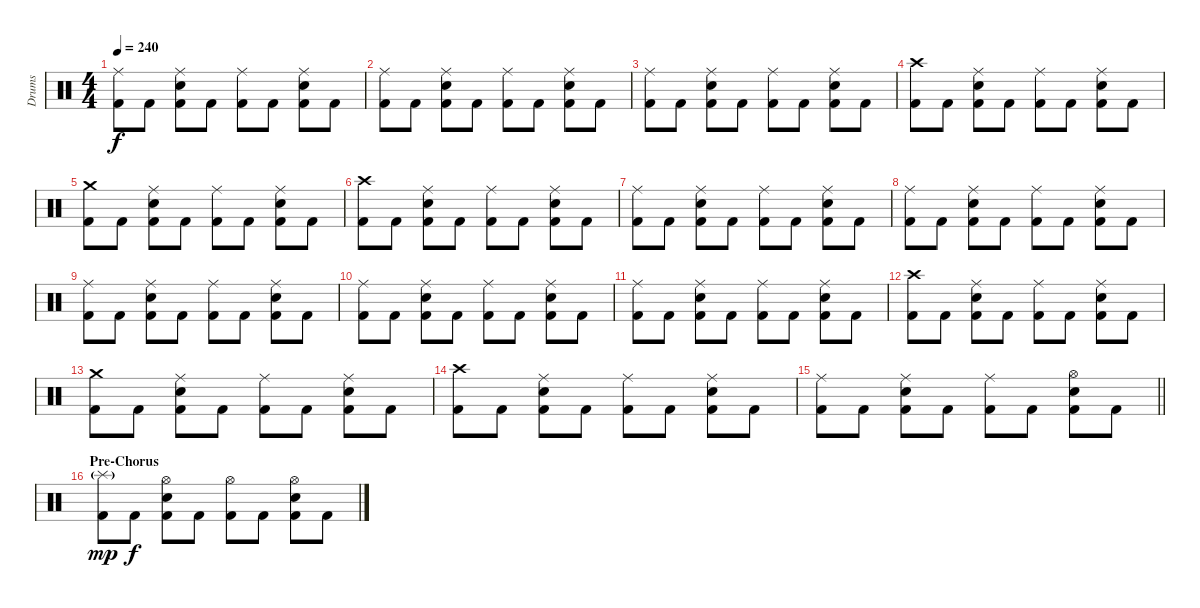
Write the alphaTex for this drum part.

\track ("Drums" "Drums") {instrument percussion}
\staff {score}
\articulation defaults
\ts (4 4)
\tempo 240
\clef neutral
\ks c
("Ride (middle)" "Kick (hit) 2").8{dy f} "Kick (hit) 2".8 ("Ride (middle)" "Snare (hit) 2" "Kick (hit) 2").8 "Kick (hit) 2".8 ("Ride (middle)" "Kick (hit) 2").8 "Kick (hit) 2".8 ("Ride (middle)" "Snare (hit) 2" "Kick (hit) 2").8 "Kick (hit) 2".8 |
("Ride (middle)" "Kick (hit) 2").8 "Kick (hit) 2".8 ("Ride (middle)" "Snare (hit) 2" "Kick (hit) 2").8 "Kick (hit) 2".8 ("Ride (middle)" "Kick (hit) 2").8 "Kick (hit) 2".8 ("Ride (middle)" "Snare (hit) 2" "Kick (hit) 2").8 "Kick (hit) 2".8 |
("Ride (middle)" "Kick (hit) 2").8 "Kick (hit) 2".8 ("Ride (middle)" "Snare (hit) 2" "Kick (hit) 2").8 "Kick (hit) 2".8 ("Ride (middle)" "Kick (hit) 2").8 "Kick (hit) 2".8 ("Ride (middle)" "Snare (hit) 2" "Kick (hit) 2").8 "Kick (hit) 2".8 |
("Crash high (hit)" "Kick (hit) 2").8 "Kick (hit) 2".8 ("Ride (middle)" "Snare (hit) 2" "Kick (hit) 2").8 "Kick (hit) 2".8 ("Ride (middle)" "Kick (hit) 2").8 "Kick (hit) 2".8 ("Ride (middle)" "Snare (hit) 2" "Kick (hit) 2").8 "Kick (hit) 2".8 |
("Crash medium (hit)" "Kick (hit) 2").8 "Kick (hit) 2".8 ("Ride (middle)" "Snare (hit) 2" "Kick (hit) 2").8 "Kick (hit) 2".8 ("Ride (middle)" "Kick (hit) 2").8 "Kick (hit) 2".8 ("Ride (middle)" "Snare (hit) 2" "Kick (hit) 2").8 "Kick (hit) 2".8 |
("Crash high (hit)" "Kick (hit) 2").8 "Kick (hit) 2".8 ("Ride (middle)" "Snare (hit) 2" "Kick (hit) 2").8 "Kick (hit) 2".8 ("Ride (middle)" "Kick (hit) 2").8 "Kick (hit) 2".8 ("Ride (middle)" "Snare (hit) 2" "Kick (hit) 2").8 "Kick (hit) 2".8 |
("Ride (middle)" "Kick (hit) 2").8 "Kick (hit) 2".8 ("Ride (middle)" "Snare (hit) 2" "Kick (hit) 2").8 "Kick (hit) 2".8 ("Ride (middle)" "Kick (hit) 2").8 "Kick (hit) 2".8 ("Ride (middle)" "Snare (hit) 2" "Kick (hit) 2").8 "Kick (hit) 2".8 |
("Ride (middle)" "Kick (hit) 2").8 "Kick (hit) 2".8 ("Ride (middle)" "Snare (hit) 2" "Kick (hit) 2").8 "Kick (hit) 2".8 ("Ride (middle)" "Kick (hit) 2").8 "Kick (hit) 2".8 ("Ride (middle)" "Snare (hit) 2" "Kick (hit) 2").8 "Kick (hit) 2".8 |
("Ride (middle)" "Kick (hit) 2").8 "Kick (hit) 2".8 ("Ride (middle)" "Snare (hit) 2" "Kick (hit) 2").8 "Kick (hit) 2".8 ("Ride (middle)" "Kick (hit) 2").8 "Kick (hit) 2".8 ("Ride (middle)" "Snare (hit) 2" "Kick (hit) 2").8 "Kick (hit) 2".8 |
("Ride (middle)" "Kick (hit) 2").8 "Kick (hit) 2".8 ("Ride (middle)" "Snare (hit) 2" "Kick (hit) 2").8 "Kick (hit) 2".8 ("Ride (middle)" "Kick (hit) 2").8 "Kick (hit) 2".8 ("Ride (middle)" "Snare (hit) 2" "Kick (hit) 2").8 "Kick (hit) 2".8 |
("Ride (middle)" "Kick (hit) 2").8 "Kick (hit) 2".8 ("Ride (middle)" "Snare (hit) 2" "Kick (hit) 2").8 "Kick (hit) 2".8 ("Ride (middle)" "Kick (hit) 2").8 "Kick (hit) 2".8 ("Ride (middle)" "Snare (hit) 2" "Kick (hit) 2").8 "Kick (hit) 2".8 |
("Crash high (hit)" "Kick (hit) 2").8 "Kick (hit) 2".8 ("Ride (middle)" "Snare (hit) 2" "Kick (hit) 2").8 "Kick (hit) 2".8 ("Ride (middle)" "Kick (hit) 2").8 "Kick (hit) 2".8 ("Ride (middle)" "Snare (hit) 2" "Kick (hit) 2").8 "Kick (hit) 2".8 |
("Crash medium (hit)" "Kick (hit) 2").8 "Kick (hit) 2".8 ("Ride (middle)" "Snare (hit) 2" "Kick (hit) 2").8 "Kick (hit) 2".8 ("Ride (middle)" "Kick (hit) 2").8 "Kick (hit) 2".8 ("Ride (middle)" "Snare (hit) 2" "Kick (hit) 2").8 "Kick (hit) 2".8 |
("Crash high (hit)" "Kick (hit) 2").8 "Kick (hit) 2".8 ("Ride (middle)" "Snare (hit) 2" "Kick (hit) 2").8 "Kick (hit) 2".8 ("Ride (middle)" "Kick (hit) 2").8 "Kick (hit) 2".8 ("Ride (middle)" "Snare (hit) 2" "Kick (hit) 2").8 "Kick (hit) 2".8 |
\barLineRight lightlight
("Ride (middle)" "Kick (hit) 2").8 "Kick (hit) 2".8 ("Ride (middle)" "Snare (hit) 2" "Kick (hit) 2").8 "Kick (hit) 2".8 ("Ride (middle)" "Kick (hit) 2").8 "Kick (hit) 2".8 ("Hi-Hat (open)" "Snare (hit) 2" "Kick (hit) 2").8 "Kick (hit) 2".8 |
\section ("" "Pre-Chorus")
("Splash (hit)"{g} "Kick (hit) 2").8{dy mp} "Kick (hit) 2".8{dy f} ("Hi-Hat (open)" "Snare (hit) 2" "Kick (hit) 2").8 "Kick (hit) 2".8 ("Hi-Hat (open)" "Kick (hit) 2").8 "Kick (hit) 2".8 ("Hi-Hat (open)" "Snare (hit) 2" "Kick (hit) 2").8 "Kick (hit) 2".8
